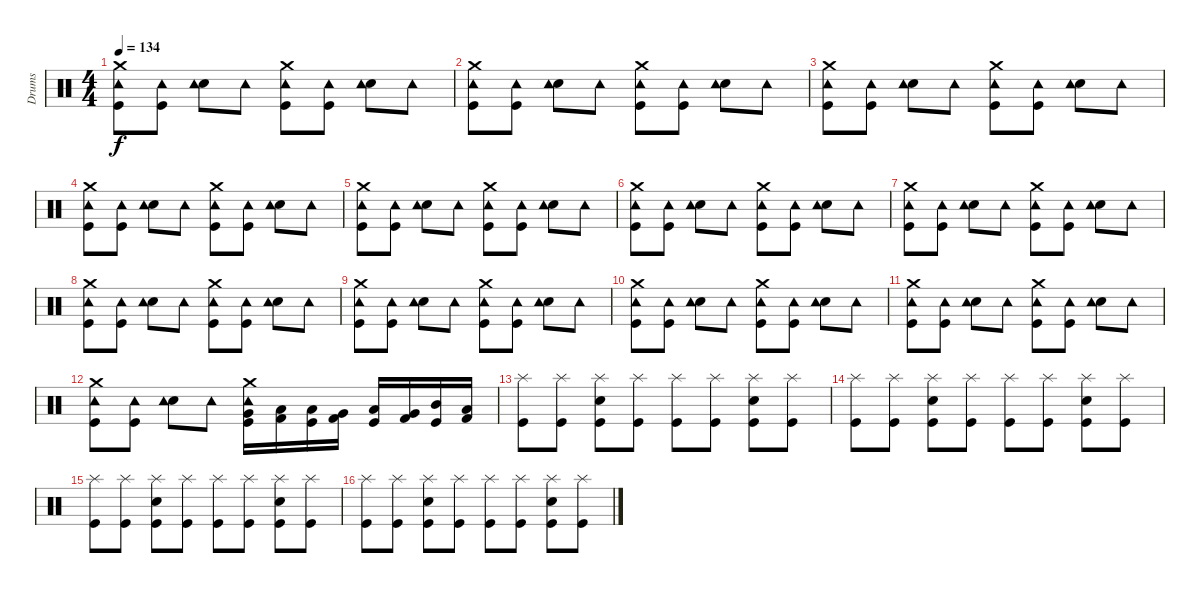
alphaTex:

\track ("Drums" "Drums") {instrument percussion}
\staff {score}
\articulation defaults
\ts (4 4)
\tempo 134
\clef neutral
\ks c
("Crash medium (hit)" "Tambourine (hit)" "Kick (hit)").8{dy f} ("Kick (hit)" "Tambourine (hit)").8 ("Electric Snare (hit)" "Tambourine (hit)").8 "Tambourine (hit)".8 ("Kick (hit)" "Tambourine (hit)" "Crash medium (hit)").8 ("Kick (hit)" "Tambourine (hit)").8 ("Electric Snare (hit)" "Tambourine (hit)").8 "Tambourine (hit)".8 |
("Crash medium (hit)" "Tambourine (hit)" "Kick (hit)").8 ("Kick (hit)" "Tambourine (hit)").8 ("Electric Snare (hit)" "Tambourine (hit)").8 "Tambourine (hit)".8 ("Kick (hit)" "Tambourine (hit)" "Crash medium (hit)").8 ("Kick (hit)" "Tambourine (hit)").8 ("Electric Snare (hit)" "Tambourine (hit)").8 "Tambourine (hit)".8 |
("Crash medium (hit)" "Tambourine (hit)" "Kick (hit)").8 ("Kick (hit)" "Tambourine (hit)").8 ("Electric Snare (hit)" "Tambourine (hit)").8 "Tambourine (hit)".8 ("Kick (hit)" "Tambourine (hit)" "Crash medium (hit)").8 ("Kick (hit)" "Tambourine (hit)").8 ("Electric Snare (hit)" "Tambourine (hit)").8 "Tambourine (hit)".8 |
("Crash medium (hit)" "Tambourine (hit)" "Kick (hit)").8 ("Kick (hit)" "Tambourine (hit)").8 ("Electric Snare (hit)" "Tambourine (hit)").8 "Tambourine (hit)".8 ("Kick (hit)" "Tambourine (hit)" "Crash medium (hit)").8 ("Kick (hit)" "Tambourine (hit)").8 ("Electric Snare (hit)" "Tambourine (hit)").8 "Tambourine (hit)".8 |
("Crash medium (hit)" "Tambourine (hit)" "Kick (hit)").8 ("Kick (hit)" "Tambourine (hit)").8 ("Electric Snare (hit)" "Tambourine (hit)").8 "Tambourine (hit)".8 ("Kick (hit)" "Tambourine (hit)" "Crash medium (hit)").8 ("Kick (hit)" "Tambourine (hit)").8 ("Electric Snare (hit)" "Tambourine (hit)").8 "Tambourine (hit)".8 |
("Crash medium (hit)" "Tambourine (hit)" "Kick (hit)").8 ("Kick (hit)" "Tambourine (hit)").8 ("Electric Snare (hit)" "Tambourine (hit)").8 "Tambourine (hit)".8 ("Kick (hit)" "Tambourine (hit)" "Crash medium (hit)").8 ("Kick (hit)" "Tambourine (hit)").8 ("Electric Snare (hit)" "Tambourine (hit)").8 "Tambourine (hit)".8 |
("Crash medium (hit)" "Tambourine (hit)" "Kick (hit)").8 ("Kick (hit)" "Tambourine (hit)").8 ("Electric Snare (hit)" "Tambourine (hit)").8 "Tambourine (hit)".8 ("Kick (hit)" "Tambourine (hit)" "Crash medium (hit)").8 ("Kick (hit)" "Tambourine (hit)").8 ("Electric Snare (hit)" "Tambourine (hit)").8 "Tambourine (hit)".8 |
("Crash medium (hit)" "Tambourine (hit)" "Kick (hit)").8 ("Kick (hit)" "Tambourine (hit)").8 ("Electric Snare (hit)" "Tambourine (hit)").8 "Tambourine (hit)".8 ("Kick (hit)" "Tambourine (hit)" "Crash medium (hit)").8 ("Kick (hit)" "Tambourine (hit)").8 ("Electric Snare (hit)" "Tambourine (hit)").8 "Tambourine (hit)".8 |
("Crash medium (hit)" "Tambourine (hit)" "Kick (hit)").8 ("Kick (hit)" "Tambourine (hit)").8 ("Electric Snare (hit)" "Tambourine (hit)").8 "Tambourine (hit)".8 ("Kick (hit)" "Tambourine (hit)" "Crash medium (hit)").8 ("Kick (hit)" "Tambourine (hit)").8 ("Electric Snare (hit)" "Tambourine (hit)").8 "Tambourine (hit)".8 |
("Crash medium (hit)" "Tambourine (hit)" "Kick (hit)").8 ("Kick (hit)" "Tambourine (hit)").8 ("Electric Snare (hit)" "Tambourine (hit)").8 "Tambourine (hit)".8 ("Kick (hit)" "Tambourine (hit)" "Crash medium (hit)").8 ("Kick (hit)" "Tambourine (hit)").8 ("Electric Snare (hit)" "Tambourine (hit)").8 "Tambourine (hit)".8 |
("Crash medium (hit)" "Tambourine (hit)" "Kick (hit)").8 ("Kick (hit)" "Tambourine (hit)").8 ("Electric Snare (hit)" "Tambourine (hit)").8 "Tambourine (hit)".8 ("Kick (hit)" "Tambourine (hit)" "Crash medium (hit)").8 ("Kick (hit)" "Tambourine (hit)").8 ("Electric Snare (hit)" "Tambourine (hit)").8 "Tambourine (hit)".8 |
("Crash medium (hit)" "Tambourine (hit)" "Kick (hit)").8 ("Kick (hit)" "Tambourine (hit)").8 ("Electric Snare (hit)" "Tambourine (hit)").8 "Tambourine (hit)".8 ("Tambourine (hit)" "Crash medium (hit)" "Kick (hit)" "Very Low Tom (hit)").16 ("Kick (hit) 2" "Low Floor Tom (hit)").16 ("Kick (hit)" "Low Tom (hit)").16 ("Kick (hit) 2" "Very Low Tom (hit)").16 ("Kick (hit)" "Low Tom (hit)").16 ("Kick (hit) 2" "Very Low Tom (hit)").16 ("Kick (hit)" "Mid Tom (hit)").16 ("Kick (hit) 2" "Low Tom (hit)").16 |
("Kick (hit)" "Splash (hit)").8 ("Splash (hit)" "Kick (hit)").8 ("Splash (hit)" "Kick (hit)" "Electric Snare (hit)").8 ("Splash (hit)" "Kick (hit)").8 ("Kick (hit)" "Splash (hit)").8 ("Splash (hit)" "Kick (hit)").8 ("Splash (hit)" "Kick (hit)" "Electric Snare (hit)").8 ("Splash (hit)" "Kick (hit)").8 |
("Splash (hit)" "Kick (hit)").8 ("Splash (hit)" "Kick (hit)").8 ("Splash (hit)" "Kick (hit)" "Electric Snare (hit)").8 ("Splash (hit)" "Kick (hit)").8 ("Kick (hit)" "Splash (hit)").8 ("Splash (hit)" "Kick (hit)").8 ("Splash (hit)" "Kick (hit)" "Electric Snare (hit)").8 ("Splash (hit)" "Kick (hit)").8 |
("Splash (hit)" "Kick (hit)").8 ("Splash (hit)" "Kick (hit)").8 ("Splash (hit)" "Kick (hit)" "Electric Snare (hit)").8 ("Splash (hit)" "Kick (hit)").8 ("Kick (hit)" "Splash (hit)").8 ("Splash (hit)" "Kick (hit)").8 ("Splash (hit)" "Kick (hit)" "Electric Snare (hit)").8 ("Splash (hit)" "Kick (hit)").8 |
("Splash (hit)" "Kick (hit)").8 ("Splash (hit)" "Kick (hit)").8 ("Splash (hit)" "Kick (hit)" "Electric Snare (hit)").8 ("Splash (hit)" "Kick (hit)").8 ("Kick (hit)" "Splash (hit)").8 ("Splash (hit)" "Kick (hit)").8 ("Splash (hit)" "Kick (hit)" "Electric Snare (hit)").8 ("Splash (hit)" "Kick (hit)").8
